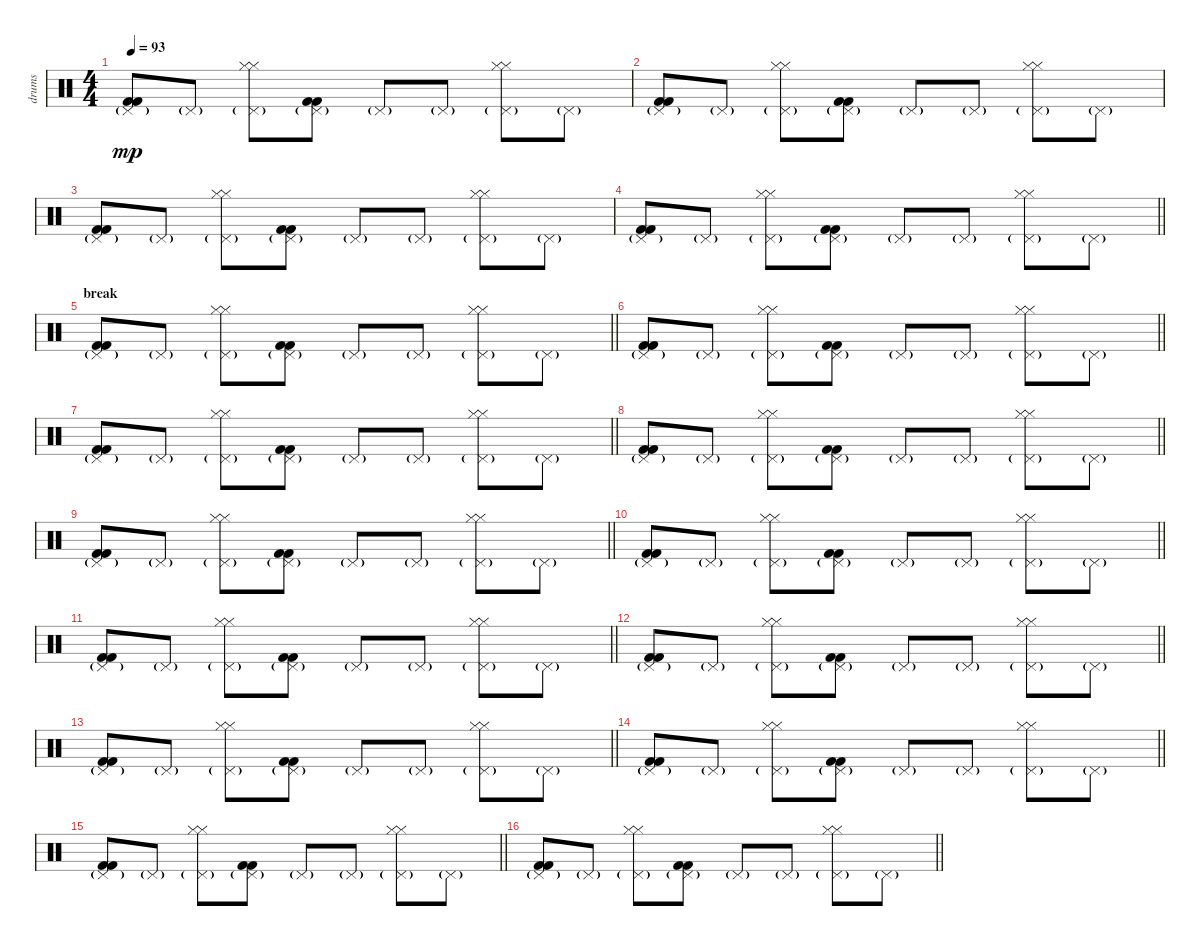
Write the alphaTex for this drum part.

\track ("drums" "drums") {instrument percussion}
\staff {score}
\articulation defaults
\ts (4 4)
\tempo 93
\clef neutral
\ks c
("Kick (hit) 2" "Kick (hit) 2" "Pedal Hi-Hat (hit)"{g}).8{dy mp} "Pedal Hi-Hat (hit)"{g}.8 ("Hi-Hat (closed)" "Hi-Hat (closed)" "Pedal Hi-Hat (hit)"{g}).8 ("Kick (hit) 2" "Kick (hit) 2" "Pedal Hi-Hat (hit)"{g}).8 "Pedal Hi-Hat (hit)"{g}.8 "Pedal Hi-Hat (hit)"{g}.8 ("Hi-Hat (closed)" "Hi-Hat (closed)" "Pedal Hi-Hat (hit)"{g}).8 "Pedal Hi-Hat (hit)"{g}.8 |
("Kick (hit) 2" "Kick (hit) 2" "Pedal Hi-Hat (hit)"{g}).8 "Pedal Hi-Hat (hit)"{g}.8 ("Hi-Hat (closed)" "Hi-Hat (closed)" "Pedal Hi-Hat (hit)"{g}).8 ("Kick (hit) 2" "Kick (hit) 2" "Pedal Hi-Hat (hit)"{g}).8 "Pedal Hi-Hat (hit)"{g}.8 "Pedal Hi-Hat (hit)"{g}.8 ("Hi-Hat (closed)" "Hi-Hat (closed)" "Pedal Hi-Hat (hit)"{g}).8 "Pedal Hi-Hat (hit)"{g}.8 |
("Kick (hit) 2" "Kick (hit) 2" "Pedal Hi-Hat (hit)"{g}).8 "Pedal Hi-Hat (hit)"{g}.8 ("Hi-Hat (closed)" "Hi-Hat (closed)" "Pedal Hi-Hat (hit)"{g}).8 ("Kick (hit) 2" "Kick (hit) 2" "Pedal Hi-Hat (hit)"{g}).8 "Pedal Hi-Hat (hit)"{g}.8 "Pedal Hi-Hat (hit)"{g}.8 ("Hi-Hat (closed)" "Hi-Hat (closed)" "Pedal Hi-Hat (hit)"{g}).8 "Pedal Hi-Hat (hit)"{g}.8 |
\barLineRight lightlight
("Kick (hit) 2" "Kick (hit) 2" "Pedal Hi-Hat (hit)"{g}).8 "Pedal Hi-Hat (hit)"{g}.8 ("Hi-Hat (closed)" "Hi-Hat (closed)" "Pedal Hi-Hat (hit)"{g}).8 ("Kick (hit) 2" "Kick (hit) 2" "Pedal Hi-Hat (hit)"{g}).8 "Pedal Hi-Hat (hit)"{g}.8 "Pedal Hi-Hat (hit)"{g}.8 ("Hi-Hat (closed)" "Hi-Hat (closed)" "Pedal Hi-Hat (hit)"{g}).8 "Pedal Hi-Hat (hit)"{g}.8 |
\section ("" "break")
\barLineRight lightlight
("Kick (hit) 2" "Kick (hit) 2" "Pedal Hi-Hat (hit)"{g}).8 "Pedal Hi-Hat (hit)"{g}.8 ("Hi-Hat (closed)" "Hi-Hat (closed)" "Pedal Hi-Hat (hit)"{g}).8 ("Kick (hit) 2" "Kick (hit) 2" "Pedal Hi-Hat (hit)"{g}).8 "Pedal Hi-Hat (hit)"{g}.8 "Pedal Hi-Hat (hit)"{g}.8 ("Hi-Hat (closed)" "Hi-Hat (closed)" "Pedal Hi-Hat (hit)"{g}).8 "Pedal Hi-Hat (hit)"{g}.8 |
\barLineRight lightlight
("Kick (hit) 2" "Kick (hit) 2" "Pedal Hi-Hat (hit)"{g}).8 "Pedal Hi-Hat (hit)"{g}.8 ("Hi-Hat (closed)" "Hi-Hat (closed)" "Pedal Hi-Hat (hit)"{g}).8 ("Kick (hit) 2" "Kick (hit) 2" "Pedal Hi-Hat (hit)"{g}).8 "Pedal Hi-Hat (hit)"{g}.8 "Pedal Hi-Hat (hit)"{g}.8 ("Hi-Hat (closed)" "Hi-Hat (closed)" "Pedal Hi-Hat (hit)"{g}).8 "Pedal Hi-Hat (hit)"{g}.8 |
\barLineRight lightlight
("Kick (hit) 2" "Kick (hit) 2" "Pedal Hi-Hat (hit)"{g}).8 "Pedal Hi-Hat (hit)"{g}.8 ("Hi-Hat (closed)" "Hi-Hat (closed)" "Pedal Hi-Hat (hit)"{g}).8 ("Kick (hit) 2" "Kick (hit) 2" "Pedal Hi-Hat (hit)"{g}).8 "Pedal Hi-Hat (hit)"{g}.8 "Pedal Hi-Hat (hit)"{g}.8 ("Hi-Hat (closed)" "Hi-Hat (closed)" "Pedal Hi-Hat (hit)"{g}).8 "Pedal Hi-Hat (hit)"{g}.8 |
\barLineRight lightlight
("Kick (hit) 2" "Kick (hit) 2" "Pedal Hi-Hat (hit)"{g}).8 "Pedal Hi-Hat (hit)"{g}.8 ("Hi-Hat (closed)" "Hi-Hat (closed)" "Pedal Hi-Hat (hit)"{g}).8 ("Kick (hit) 2" "Kick (hit) 2" "Pedal Hi-Hat (hit)"{g}).8 "Pedal Hi-Hat (hit)"{g}.8 "Pedal Hi-Hat (hit)"{g}.8 ("Hi-Hat (closed)" "Hi-Hat (closed)" "Pedal Hi-Hat (hit)"{g}).8 "Pedal Hi-Hat (hit)"{g}.8 |
\barLineRight lightlight
("Kick (hit) 2" "Kick (hit) 2" "Pedal Hi-Hat (hit)"{g}).8 "Pedal Hi-Hat (hit)"{g}.8 ("Hi-Hat (closed)" "Hi-Hat (closed)" "Pedal Hi-Hat (hit)"{g}).8 ("Kick (hit) 2" "Kick (hit) 2" "Pedal Hi-Hat (hit)"{g}).8 "Pedal Hi-Hat (hit)"{g}.8 "Pedal Hi-Hat (hit)"{g}.8 ("Hi-Hat (closed)" "Hi-Hat (closed)" "Pedal Hi-Hat (hit)"{g}).8 "Pedal Hi-Hat (hit)"{g}.8 |
\barLineRight lightlight
("Kick (hit) 2" "Kick (hit) 2" "Pedal Hi-Hat (hit)"{g}).8 "Pedal Hi-Hat (hit)"{g}.8 ("Hi-Hat (closed)" "Hi-Hat (closed)" "Pedal Hi-Hat (hit)"{g}).8 ("Kick (hit) 2" "Kick (hit) 2" "Pedal Hi-Hat (hit)"{g}).8 "Pedal Hi-Hat (hit)"{g}.8 "Pedal Hi-Hat (hit)"{g}.8 ("Hi-Hat (closed)" "Hi-Hat (closed)" "Pedal Hi-Hat (hit)"{g}).8 "Pedal Hi-Hat (hit)"{g}.8 |
\barLineRight lightlight
("Kick (hit) 2" "Kick (hit) 2" "Pedal Hi-Hat (hit)"{g}).8 "Pedal Hi-Hat (hit)"{g}.8 ("Hi-Hat (closed)" "Hi-Hat (closed)" "Pedal Hi-Hat (hit)"{g}).8 ("Kick (hit) 2" "Kick (hit) 2" "Pedal Hi-Hat (hit)"{g}).8 "Pedal Hi-Hat (hit)"{g}.8 "Pedal Hi-Hat (hit)"{g}.8 ("Hi-Hat (closed)" "Hi-Hat (closed)" "Pedal Hi-Hat (hit)"{g}).8 "Pedal Hi-Hat (hit)"{g}.8 |
\barLineRight lightlight
("Kick (hit) 2" "Kick (hit) 2" "Pedal Hi-Hat (hit)"{g}).8 "Pedal Hi-Hat (hit)"{g}.8 ("Hi-Hat (closed)" "Hi-Hat (closed)" "Pedal Hi-Hat (hit)"{g}).8 ("Kick (hit) 2" "Kick (hit) 2" "Pedal Hi-Hat (hit)"{g}).8 "Pedal Hi-Hat (hit)"{g}.8 "Pedal Hi-Hat (hit)"{g}.8 ("Hi-Hat (closed)" "Hi-Hat (closed)" "Pedal Hi-Hat (hit)"{g}).8 "Pedal Hi-Hat (hit)"{g}.8 |
\barLineRight lightlight
("Kick (hit) 2" "Kick (hit) 2" "Pedal Hi-Hat (hit)"{g}).8 "Pedal Hi-Hat (hit)"{g}.8 ("Hi-Hat (closed)" "Hi-Hat (closed)" "Pedal Hi-Hat (hit)"{g}).8 ("Kick (hit) 2" "Kick (hit) 2" "Pedal Hi-Hat (hit)"{g}).8 "Pedal Hi-Hat (hit)"{g}.8 "Pedal Hi-Hat (hit)"{g}.8 ("Hi-Hat (closed)" "Hi-Hat (closed)" "Pedal Hi-Hat (hit)"{g}).8 "Pedal Hi-Hat (hit)"{g}.8 |
\barLineRight lightlight
("Kick (hit) 2" "Kick (hit) 2" "Pedal Hi-Hat (hit)"{g}).8 "Pedal Hi-Hat (hit)"{g}.8 ("Hi-Hat (closed)" "Hi-Hat (closed)" "Pedal Hi-Hat (hit)"{g}).8 ("Kick (hit) 2" "Kick (hit) 2" "Pedal Hi-Hat (hit)"{g}).8 "Pedal Hi-Hat (hit)"{g}.8 "Pedal Hi-Hat (hit)"{g}.8 ("Hi-Hat (closed)" "Hi-Hat (closed)" "Pedal Hi-Hat (hit)"{g}).8 "Pedal Hi-Hat (hit)"{g}.8 |
\barLineRight lightlight
("Kick (hit) 2" "Kick (hit) 2" "Pedal Hi-Hat (hit)"{g}).8 "Pedal Hi-Hat (hit)"{g}.8 ("Hi-Hat (closed)" "Hi-Hat (closed)" "Pedal Hi-Hat (hit)"{g}).8 ("Kick (hit) 2" "Kick (hit) 2" "Pedal Hi-Hat (hit)"{g}).8 "Pedal Hi-Hat (hit)"{g}.8 "Pedal Hi-Hat (hit)"{g}.8 ("Hi-Hat (closed)" "Hi-Hat (closed)" "Pedal Hi-Hat (hit)"{g}).8 "Pedal Hi-Hat (hit)"{g}.8 |
\barLineRight lightlight
("Kick (hit) 2" "Kick (hit) 2" "Pedal Hi-Hat (hit)"{g}).8 "Pedal Hi-Hat (hit)"{g}.8 ("Hi-Hat (closed)" "Hi-Hat (closed)" "Pedal Hi-Hat (hit)"{g}).8 ("Kick (hit) 2" "Kick (hit) 2" "Pedal Hi-Hat (hit)"{g}).8 "Pedal Hi-Hat (hit)"{g}.8 "Pedal Hi-Hat (hit)"{g}.8 ("Hi-Hat (closed)" "Hi-Hat (closed)" "Pedal Hi-Hat (hit)"{g}).8 "Pedal Hi-Hat (hit)"{g}.8
